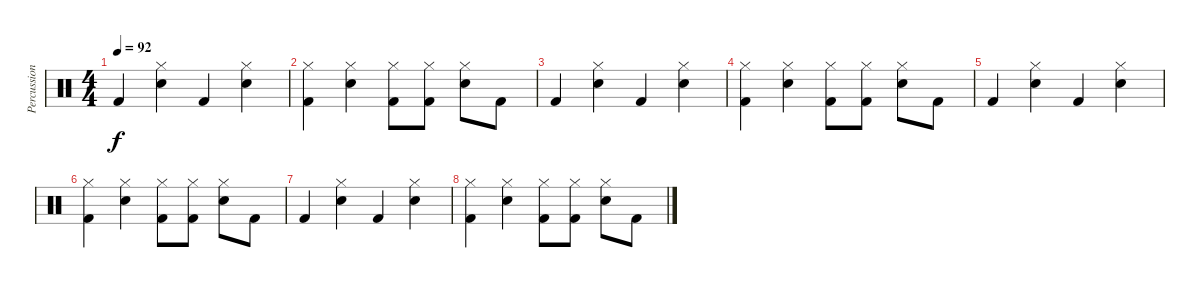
\track ("Percussion" "Percussion") {instrument percussion}
\staff {score}
\articulation defaults
\ts (4 4)
\tempo 92
\clef neutral
\ks c "Kick (hit) 2".4{dy f}
("Hi-Hat (closed)" "Electric Snare (hit)").4 "Kick (hit) 2".4 ("Hi-Hat (closed)" "Electric Snare (hit)").4 |
("Hi-Hat (closed)" "Kick (hit) 2").4 ("Hi-Hat (closed)" "Electric Snare (hit)").4 ("Hi-Hat (closed)" "Kick (hit) 2").8 ("Hi-Hat (closed)" "Kick (hit) 2").8 ("Hi-Hat (closed)" "Electric Snare (hit)").8 "Kick (hit) 2".8 |
"Kick (hit) 2".4 ("Hi-Hat (closed)" "Electric Snare (hit)").4 "Kick (hit) 2".4 ("Hi-Hat (closed)" "Electric Snare (hit)").4 |
("Hi-Hat (closed)" "Kick (hit) 2").4 ("Hi-Hat (closed)" "Electric Snare (hit)").4 ("Hi-Hat (closed)" "Kick (hit) 2").8 ("Hi-Hat (closed)" "Kick (hit) 2").8 ("Hi-Hat (closed)" "Electric Snare (hit)").8 "Kick (hit) 2".8 |
"Kick (hit) 2".4 ("Hi-Hat (closed)" "Electric Snare (hit)").4 "Kick (hit) 2".4 ("Hi-Hat (closed)" "Electric Snare (hit)").4 |
("Hi-Hat (closed)" "Kick (hit) 2").4 ("Hi-Hat (closed)" "Electric Snare (hit)").4 ("Hi-Hat (closed)" "Kick (hit) 2").8 ("Hi-Hat (closed)" "Kick (hit) 2").8 ("Hi-Hat (closed)" "Electric Snare (hit)").8 "Kick (hit) 2".8 |
"Kick (hit) 2".4 ("Hi-Hat (closed)" "Electric Snare (hit)").4 "Kick (hit) 2".4 ("Hi-Hat (closed)" "Electric Snare (hit)").4 |
("Hi-Hat (closed)" "Kick (hit) 2").4 ("Hi-Hat (closed)" "Electric Snare (hit)").4 ("Hi-Hat (closed)" "Kick (hit) 2").8 ("Hi-Hat (closed)" "Kick (hit) 2").8 ("Hi-Hat (closed)" "Electric Snare (hit)").8 "Kick (hit) 2".8
